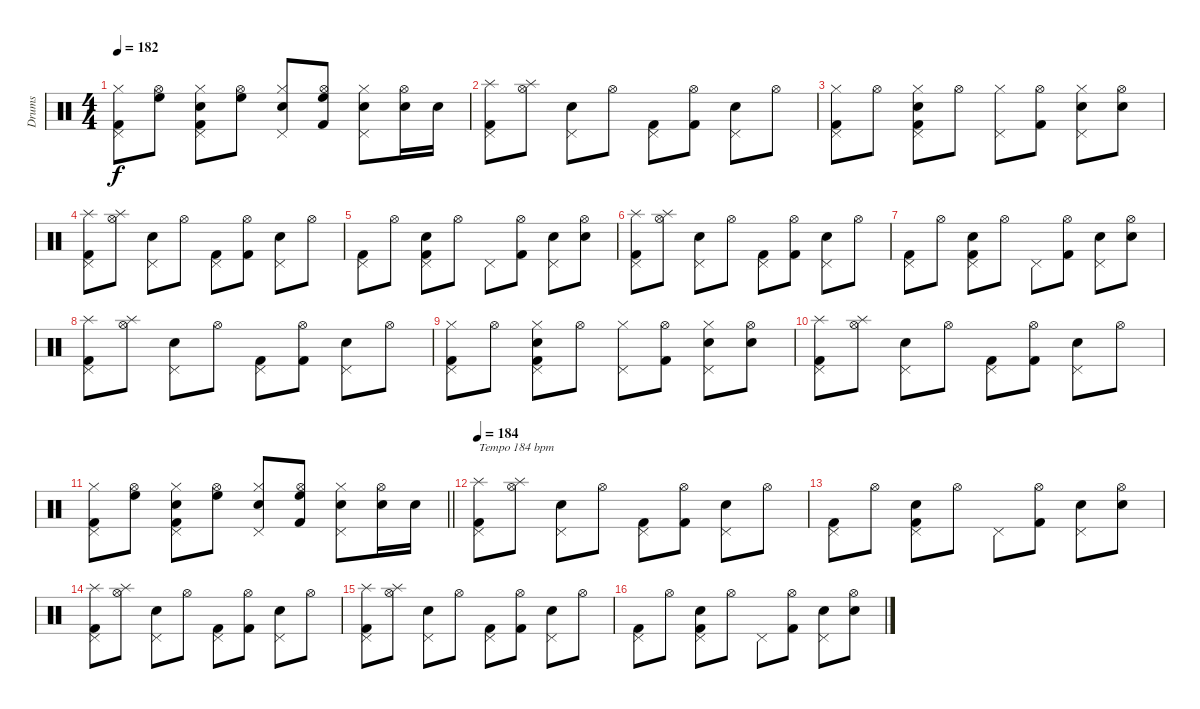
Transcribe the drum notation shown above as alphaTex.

\track ("Drums" "Drums") {instrument percussion}
\staff {score}
\articulation defaults
\ts (4 4)
\tempo 182
\clef neutral
\ks c
("Pedal Hi-Hat (hit)" "Hi-Hat (closed)" "Kick (hit) 2").8{dy f} ("Hi-Hat (open)" "High Floor Tom (hit)").8 ("Pedal Hi-Hat (hit)" "Hi-Hat (closed)" "Snare (hit) 2" "Kick (hit) 2").8 ("Hi-Hat (open)" "High Floor Tom (hit)").8 ("Pedal Hi-Hat (hit)" "Hi-Hat (closed)" "Snare (hit) 2").8 ("Hi-Hat (open)" "High Floor Tom (hit)" "Kick (hit) 2").8 ("Pedal Hi-Hat (hit)" "Hi-Hat (closed)" "Snare (hit) 2").8 ("Hi-Hat (open)" "Snare (hit) 2").16 "Snare (hit) 2".16 |
("Pedal Hi-Hat (hit)" "Splash (hit)" "Kick (hit) 2").8 ("Hi-Hat (open)" "Splash (hit)").8 ("Pedal Hi-Hat (hit)" "Snare (hit) 2").8 "Hi-Hat (open)".8 ("Pedal Hi-Hat (hit)" "Kick (hit) 2").8 ("Hi-Hat (open)" "Kick (hit) 2").8 ("Pedal Hi-Hat (hit)" "Snare (hit) 2").8 "Hi-Hat (open)".8 |
("Pedal Hi-Hat (hit)" "Hi-Hat (closed)" "Kick (hit) 2").8 "Hi-Hat (open)".8 ("Pedal Hi-Hat (hit)" "Hi-Hat (closed)" "Snare (hit) 2" "Kick (hit) 2").8 "Hi-Hat (open)".8 ("Pedal Hi-Hat (hit)" "Hi-Hat (closed)").8 ("Hi-Hat (open)" "Kick (hit) 2").8 ("Pedal Hi-Hat (hit)" "Hi-Hat (closed)" "Snare (hit) 2").8 ("Hi-Hat (open)" "Snare (hit) 2").8 |
("Pedal Hi-Hat (hit)" "Splash (hit)" "Kick (hit) 2").8 ("Hi-Hat (open)" "Splash (hit)").8 ("Pedal Hi-Hat (hit)" "Snare (hit) 2").8 "Hi-Hat (open)".8 ("Pedal Hi-Hat (hit)" "Kick (hit) 2").8 ("Hi-Hat (open)" "Kick (hit) 2").8 ("Pedal Hi-Hat (hit)" "Snare (hit) 2").8 "Hi-Hat (open)".8 |
("Pedal Hi-Hat (hit)" "Kick (hit) 2").8 "Hi-Hat (open)".8 ("Pedal Hi-Hat (hit)" "Snare (hit) 2" "Kick (hit) 2").8 "Hi-Hat (open)".8 "Pedal Hi-Hat (hit)".8 ("Hi-Hat (open)" "Kick (hit) 2").8 ("Pedal Hi-Hat (hit)" "Snare (hit) 2").8 ("Hi-Hat (open)" "Snare (hit) 2").8 |
("Pedal Hi-Hat (hit)" "Splash (hit)" "Kick (hit) 2").8 ("Hi-Hat (open)" "Splash (hit)").8 ("Pedal Hi-Hat (hit)" "Snare (hit) 2").8 "Hi-Hat (open)".8 ("Pedal Hi-Hat (hit)" "Kick (hit) 2").8 ("Hi-Hat (open)" "Kick (hit) 2").8 ("Pedal Hi-Hat (hit)" "Snare (hit) 2").8 "Hi-Hat (open)".8 |
("Pedal Hi-Hat (hit)" "Kick (hit) 2").8 "Hi-Hat (open)".8 ("Pedal Hi-Hat (hit)" "Snare (hit) 2" "Kick (hit) 2").8 "Hi-Hat (open)".8 "Pedal Hi-Hat (hit)".8 ("Hi-Hat (open)" "Kick (hit) 2").8 ("Pedal Hi-Hat (hit)" "Snare (hit) 2").8 ("Hi-Hat (open)" "Snare (hit) 2").8 |
("Pedal Hi-Hat (hit)" "Splash (hit)" "Kick (hit) 2").8 ("Hi-Hat (open)" "Splash (hit)").8 ("Pedal Hi-Hat (hit)" "Snare (hit) 2").8 "Hi-Hat (open)".8 ("Pedal Hi-Hat (hit)" "Kick (hit) 2").8 ("Hi-Hat (open)" "Kick (hit) 2").8 ("Pedal Hi-Hat (hit)" "Snare (hit) 2").8 "Hi-Hat (open)".8 |
("Pedal Hi-Hat (hit)" "Hi-Hat (closed)" "Kick (hit) 2").8 "Hi-Hat (open)".8 ("Pedal Hi-Hat (hit)" "Hi-Hat (closed)" "Snare (hit) 2" "Kick (hit) 2").8 "Hi-Hat (open)".8 ("Pedal Hi-Hat (hit)" "Hi-Hat (closed)").8 ("Hi-Hat (open)" "Kick (hit) 2").8 ("Pedal Hi-Hat (hit)" "Hi-Hat (closed)" "Snare (hit) 2").8 ("Hi-Hat (open)" "Snare (hit) 2").8 |
("Pedal Hi-Hat (hit)" "Splash (hit)" "Kick (hit) 2").8 ("Hi-Hat (open)" "Splash (hit)").8 ("Pedal Hi-Hat (hit)" "Snare (hit) 2").8 "Hi-Hat (open)".8 ("Pedal Hi-Hat (hit)" "Kick (hit) 2").8 ("Hi-Hat (open)" "Kick (hit) 2").8 ("Pedal Hi-Hat (hit)" "Snare (hit) 2").8 "Hi-Hat (open)".8 |
\barLineRight lightlight
("Pedal Hi-Hat (hit)" "Hi-Hat (closed)" "Kick (hit) 2").8 ("Hi-Hat (open)" "High Floor Tom (hit)").8 ("Pedal Hi-Hat (hit)" "Hi-Hat (closed)" "Snare (hit) 2" "Kick (hit) 2").8 ("Hi-Hat (open)" "High Floor Tom (hit)").8 ("Pedal Hi-Hat (hit)" "Hi-Hat (closed)" "Snare (hit) 2").8 ("Hi-Hat (open)" "High Floor Tom (hit)" "Kick (hit) 2").8 ("Pedal Hi-Hat (hit)" "Hi-Hat (closed)" "Snare (hit) 2").8 ("Hi-Hat (open)" "Snare (hit) 2").16 "Snare (hit) 2".16 |
\tempo 184
("Pedal Hi-Hat (hit)" "Splash (hit)" "Kick (hit) 2").8{txt "Tempo 184 bpm"} ("Hi-Hat (open)" "Splash (hit)").8 ("Pedal Hi-Hat (hit)" "Snare (hit) 2").8 "Hi-Hat (open)".8 ("Pedal Hi-Hat (hit)" "Kick (hit) 2").8 ("Hi-Hat (open)" "Kick (hit) 2").8 ("Pedal Hi-Hat (hit)" "Snare (hit) 2").8 "Hi-Hat (open)".8 |
("Pedal Hi-Hat (hit)" "Kick (hit) 2").8 "Hi-Hat (open)".8 ("Pedal Hi-Hat (hit)" "Snare (hit) 2" "Kick (hit) 2").8 "Hi-Hat (open)".8 "Pedal Hi-Hat (hit)".8 ("Hi-Hat (open)" "Kick (hit) 2").8 ("Pedal Hi-Hat (hit)" "Snare (hit) 2").8 ("Hi-Hat (open)" "Snare (hit) 2").8 |
("Pedal Hi-Hat (hit)" "Splash (hit)" "Kick (hit) 2").8 ("Hi-Hat (open)" "Splash (hit)").8 ("Pedal Hi-Hat (hit)" "Snare (hit) 2").8 "Hi-Hat (open)".8 ("Pedal Hi-Hat (hit)" "Kick (hit) 2").8 ("Hi-Hat (open)" "Kick (hit) 2").8 ("Pedal Hi-Hat (hit)" "Snare (hit) 2").8 "Hi-Hat (open)".8 |
("Pedal Hi-Hat (hit)" "Splash (hit)" "Kick (hit) 2").8 ("Hi-Hat (open)" "Splash (hit)").8 ("Pedal Hi-Hat (hit)" "Snare (hit) 2").8 "Hi-Hat (open)".8 ("Pedal Hi-Hat (hit)" "Kick (hit) 2").8 ("Hi-Hat (open)" "Kick (hit) 2").8 ("Pedal Hi-Hat (hit)" "Snare (hit) 2").8 "Hi-Hat (open)".8 |
("Pedal Hi-Hat (hit)" "Kick (hit) 2").8 "Hi-Hat (open)".8 ("Pedal Hi-Hat (hit)" "Snare (hit) 2" "Kick (hit) 2").8 "Hi-Hat (open)".8 "Pedal Hi-Hat (hit)".8 ("Hi-Hat (open)" "Kick (hit) 2").8 ("Pedal Hi-Hat (hit)" "Snare (hit) 2").8 ("Hi-Hat (open)" "Snare (hit) 2").8
